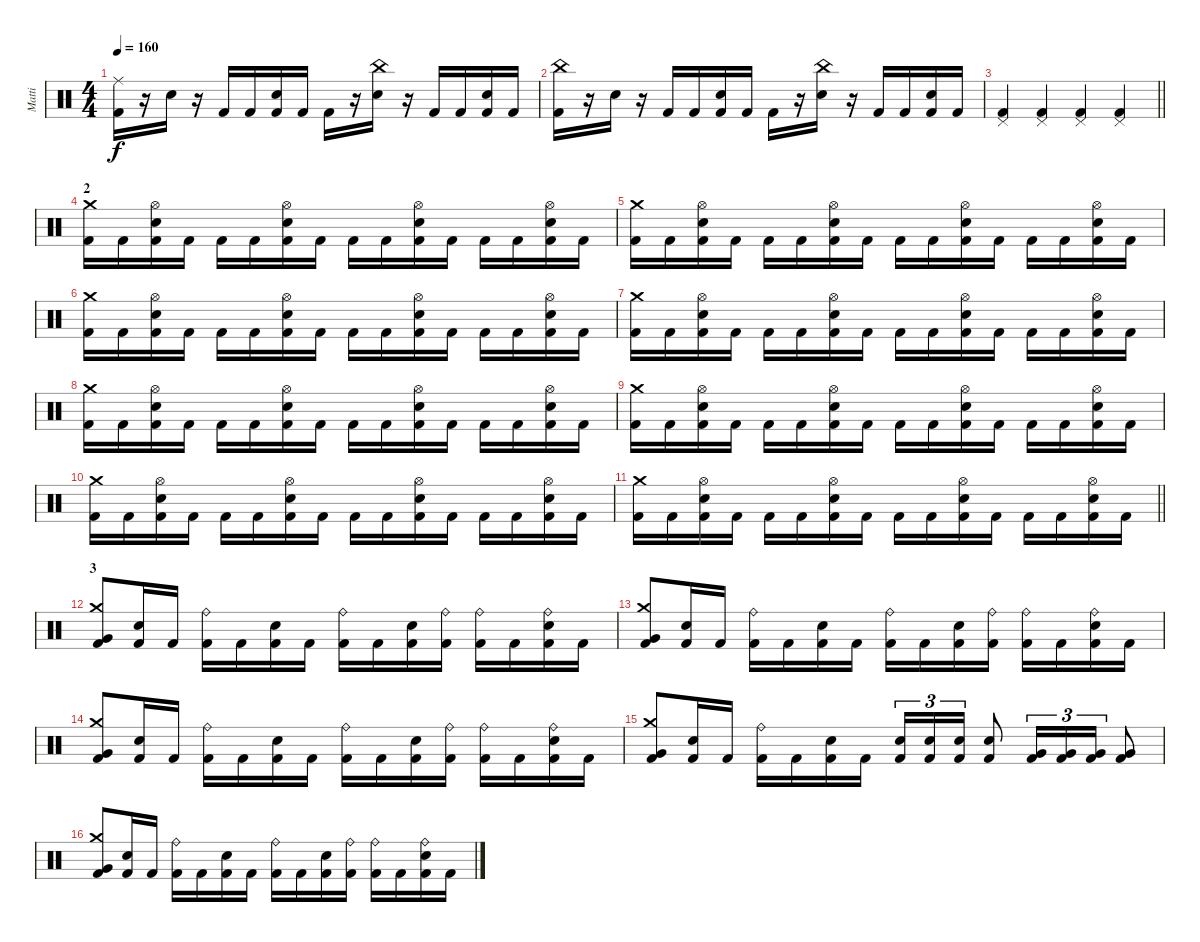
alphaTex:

\track ("Matti" "Matti") {instrument percussion}
\staff {score}
\articulation defaults
\ts (4 4)
\tempo 160
\clef neutral
\ks c
("Ride (middle)" "Kick (hit) 2").16{dy f} r.16 "Electric Snare (hit)".16 r.16 "Kick (hit) 2".16 "Kick (hit) 2".16 ("Electric Snare (hit)" "Kick (hit) 2").16 "Kick (hit) 2".16 "Kick (hit) 2".16 r.16 ("China (hit)" "Electric Snare (hit)").16 r.16 "Kick (hit) 2".16 "Kick (hit) 2".16 ("Electric Snare (hit)" "Kick (hit) 2").16 "Kick (hit) 2".16 |
("China (hit)" "Kick (hit) 2").16 r.16 "Electric Snare (hit)".16 r.16 "Kick (hit) 2".16 "Kick (hit) 2".16 ("Electric Snare (hit)" "Kick (hit) 2").16 "Kick (hit) 2".16 "Kick (hit) 2".16 r.16 ("China (hit)" "Electric Snare (hit)").16 r.16 "Kick (hit) 2".16 "Kick (hit) 2".16 ("Electric Snare (hit)" "Kick (hit) 2").16 "Kick (hit) 2".16 |
\barLineRight lightlight
("Pedal Hi-Hat (hit)" "Kick (hit) 2").4 ("Pedal Hi-Hat (hit)" "Kick (hit) 2").4 ("Pedal Hi-Hat (hit)" "Kick (hit) 2").4 ("Pedal Hi-Hat (hit)" "Kick (hit) 2").4 |
\section ("" "2")
("Crash medium (hit)" "Kick (hit) 2").16 "Kick (hit) 2".16 ("Hi-Hat (open)" "Electric Snare (hit)" "Kick (hit) 2").16 "Kick (hit) 2".16 "Kick (hit) 2".16 "Kick (hit) 2".16 ("Hi-Hat (open)" "Electric Snare (hit)" "Kick (hit) 2").16 "Kick (hit) 2".16 "Kick (hit) 2".16 "Kick (hit) 2".16 ("Hi-Hat (open)" "Electric Snare (hit)" "Kick (hit) 2").16 "Kick (hit) 2".16 "Kick (hit) 2".16 "Kick (hit) 2".16 ("Hi-Hat (open)" "Electric Snare (hit)" "Kick (hit) 2").16 "Kick (hit) 2".16 |
("Crash medium (hit)" "Kick (hit) 2").16 "Kick (hit) 2".16 ("Hi-Hat (open)" "Electric Snare (hit)" "Kick (hit) 2").16 "Kick (hit) 2".16 "Kick (hit) 2".16 "Kick (hit) 2".16 ("Hi-Hat (open)" "Electric Snare (hit)" "Kick (hit) 2").16 "Kick (hit) 2".16 "Kick (hit) 2".16 "Kick (hit) 2".16 ("Hi-Hat (open)" "Electric Snare (hit)" "Kick (hit) 2").16 "Kick (hit) 2".16 "Kick (hit) 2".16 "Kick (hit) 2".16 ("Hi-Hat (open)" "Electric Snare (hit)" "Kick (hit) 2").16 "Kick (hit) 2".16 |
("Crash medium (hit)" "Kick (hit) 2").16 "Kick (hit) 2".16 ("Hi-Hat (open)" "Electric Snare (hit)" "Kick (hit) 2").16 "Kick (hit) 2".16 "Kick (hit) 2".16 "Kick (hit) 2".16 ("Hi-Hat (open)" "Electric Snare (hit)" "Kick (hit) 2").16 "Kick (hit) 2".16 "Kick (hit) 2".16 "Kick (hit) 2".16 ("Hi-Hat (open)" "Electric Snare (hit)" "Kick (hit) 2").16 "Kick (hit) 2".16 "Kick (hit) 2".16 "Kick (hit) 2".16 ("Hi-Hat (open)" "Electric Snare (hit)" "Kick (hit) 2").16 "Kick (hit) 2".16 |
("Crash medium (hit)" "Kick (hit) 2").16 "Kick (hit) 2".16 ("Hi-Hat (open)" "Electric Snare (hit)" "Kick (hit) 2").16 "Kick (hit) 2".16 "Kick (hit) 2".16 "Kick (hit) 2".16 ("Hi-Hat (open)" "Electric Snare (hit)" "Kick (hit) 2").16 "Kick (hit) 2".16 "Kick (hit) 2".16 "Kick (hit) 2".16 ("Hi-Hat (open)" "Electric Snare (hit)" "Kick (hit) 2").16 "Kick (hit) 2".16 "Kick (hit) 2".16 "Kick (hit) 2".16 ("Hi-Hat (open)" "Electric Snare (hit)" "Kick (hit) 2").16 "Kick (hit) 2".16 |
("Crash medium (hit)" "Kick (hit) 2").16 "Kick (hit) 2".16 ("Hi-Hat (open)" "Electric Snare (hit)" "Kick (hit) 2").16 "Kick (hit) 2".16 "Kick (hit) 2".16 "Kick (hit) 2".16 ("Hi-Hat (open)" "Electric Snare (hit)" "Kick (hit) 2").16 "Kick (hit) 2".16 "Kick (hit) 2".16 "Kick (hit) 2".16 ("Hi-Hat (open)" "Electric Snare (hit)" "Kick (hit) 2").16 "Kick (hit) 2".16 "Kick (hit) 2".16 "Kick (hit) 2".16 ("Hi-Hat (open)" "Electric Snare (hit)" "Kick (hit) 2").16 "Kick (hit) 2".16 |
("Crash medium (hit)" "Kick (hit) 2").16 "Kick (hit) 2".16 ("Hi-Hat (open)" "Electric Snare (hit)" "Kick (hit) 2").16 "Kick (hit) 2".16 "Kick (hit) 2".16 "Kick (hit) 2".16 ("Hi-Hat (open)" "Electric Snare (hit)" "Kick (hit) 2").16 "Kick (hit) 2".16 "Kick (hit) 2".16 "Kick (hit) 2".16 ("Hi-Hat (open)" "Electric Snare (hit)" "Kick (hit) 2").16 "Kick (hit) 2".16 "Kick (hit) 2".16 "Kick (hit) 2".16 ("Hi-Hat (open)" "Electric Snare (hit)" "Kick (hit) 2").16 "Kick (hit) 2".16 |
("Crash medium (hit)" "Kick (hit) 2").16 "Kick (hit) 2".16 ("Hi-Hat (open)" "Electric Snare (hit)" "Kick (hit) 2").16 "Kick (hit) 2".16 "Kick (hit) 2".16 "Kick (hit) 2".16 ("Hi-Hat (open)" "Electric Snare (hit)" "Kick (hit) 2").16 "Kick (hit) 2".16 "Kick (hit) 2".16 "Kick (hit) 2".16 ("Hi-Hat (open)" "Electric Snare (hit)" "Kick (hit) 2").16 "Kick (hit) 2".16 "Kick (hit) 2".16 "Kick (hit) 2".16 ("Hi-Hat (open)" "Electric Snare (hit)" "Kick (hit) 2").16 "Kick (hit) 2".16 |
\barLineRight lightlight
("Crash medium (hit)" "Kick (hit) 2").16 "Kick (hit) 2".16 ("Hi-Hat (open)" "Electric Snare (hit)" "Kick (hit) 2").16 "Kick (hit) 2".16 "Kick (hit) 2".16 "Kick (hit) 2".16 ("Hi-Hat (open)" "Electric Snare (hit)" "Kick (hit) 2").16 "Kick (hit) 2".16 "Kick (hit) 2".16 "Kick (hit) 2".16 ("Hi-Hat (open)" "Electric Snare (hit)" "Kick (hit) 2").16 "Kick (hit) 2".16 "Kick (hit) 2".16 "Kick (hit) 2".16 ("Hi-Hat (open)" "Electric Snare (hit)" "Kick (hit) 2").16 "Kick (hit) 2".16 |
\section ("" "3")
("Crash medium (hit)" "Very Low Tom (hit)" "Kick (hit) 2").8 ("Electric Snare (hit)" "Kick (hit) 2").16 "Kick (hit) 2".16 ("Ride (bell)" "Kick (hit) 2").16 "Kick (hit) 2".16 ("Electric Snare (hit)" "Kick (hit) 2").16 "Kick (hit) 2".16 ("Ride (bell)" "Kick (hit) 2").16 "Kick (hit) 2".16 ("Electric Snare (hit)" "Kick (hit) 2").16 ("Ride (bell)" "Kick (hit) 2").16 ("Ride (bell)" "Kick (hit) 2").16 "Kick (hit) 2".16 ("Ride (bell)" "Electric Snare (hit)" "Kick (hit) 2").16 "Kick (hit) 2".16 |
("Crash medium (hit)" "Very Low Tom (hit)" "Kick (hit) 2").8 ("Electric Snare (hit)" "Kick (hit) 2").16 "Kick (hit) 2".16 ("Ride (bell)" "Kick (hit) 2").16 "Kick (hit) 2".16 ("Electric Snare (hit)" "Kick (hit) 2").16 "Kick (hit) 2".16 ("Ride (bell)" "Kick (hit) 2").16 "Kick (hit) 2".16 ("Electric Snare (hit)" "Kick (hit) 2").16 ("Ride (bell)" "Kick (hit) 2").16 ("Ride (bell)" "Kick (hit) 2").16 "Kick (hit) 2".16 ("Ride (bell)" "Electric Snare (hit)" "Kick (hit) 2").16 "Kick (hit) 2".16 |
("Crash medium (hit)" "Very Low Tom (hit)" "Kick (hit) 2").8 ("Electric Snare (hit)" "Kick (hit) 2").16 "Kick (hit) 2".16 ("Ride (bell)" "Kick (hit) 2").16 "Kick (hit) 2".16 ("Electric Snare (hit)" "Kick (hit) 2").16 "Kick (hit) 2".16 ("Ride (bell)" "Kick (hit) 2").16 "Kick (hit) 2".16 ("Electric Snare (hit)" "Kick (hit) 2").16 ("Ride (bell)" "Kick (hit) 2").16 ("Ride (bell)" "Kick (hit) 2").16 "Kick (hit) 2".16 ("Ride (bell)" "Electric Snare (hit)" "Kick (hit) 2").16 "Kick (hit) 2".16 |
("Crash medium (hit)" "Very Low Tom (hit)" "Kick (hit) 2").8 ("Electric Snare (hit)" "Kick (hit) 2").16 "Kick (hit) 2".16 ("Ride (bell)" "Kick (hit) 2").16 "Kick (hit) 2".16 ("Electric Snare (hit)" "Kick (hit) 2").16 "Kick (hit) 2".16 ("Electric Snare (hit)" "Kick (hit) 2").16{tu (3 2)} ("Electric Snare (hit)" "Kick (hit) 2").16{tu (3 2)} ("Electric Snare (hit)" "Kick (hit) 2").16{tu (3 2)} ("Electric Snare (hit)" "Kick (hit) 2").8 ("Very Low Tom (hit)" "Kick (hit) 2").16{tu (3 2)} ("Very Low Tom (hit)" "Kick (hit) 2").16{tu (3 2)} ("Very Low Tom (hit)" "Kick (hit) 2").16{tu (3 2)} ("Very Low Tom (hit)" "Kick (hit) 2").8 |
("Crash medium (hit)" "Very Low Tom (hit)" "Kick (hit) 2").8 ("Electric Snare (hit)" "Kick (hit) 2").16 "Kick (hit) 2".16 ("Ride (bell)" "Kick (hit) 2").16 "Kick (hit) 2".16 ("Electric Snare (hit)" "Kick (hit) 2").16 "Kick (hit) 2".16 ("Ride (bell)" "Kick (hit) 2").16 "Kick (hit) 2".16 ("Electric Snare (hit)" "Kick (hit) 2").16 ("Ride (bell)" "Kick (hit) 2").16 ("Ride (bell)" "Kick (hit) 2").16 "Kick (hit) 2".16 ("Ride (bell)" "Electric Snare (hit)" "Kick (hit) 2").16 "Kick (hit) 2".16
